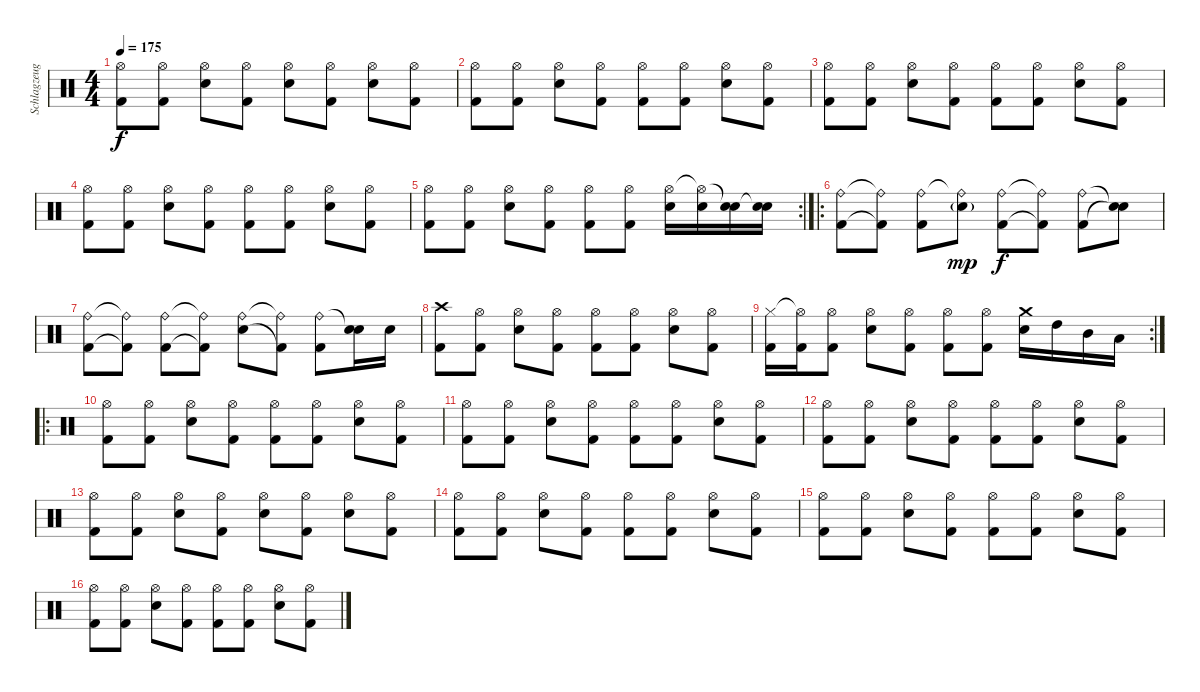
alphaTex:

\track ("Schlagzeug" "Schlagzeug") {instrument percussion}
\staff {score}
\articulation defaults
\ts (4 4)
\tempo 175
\clef neutral
\ks c
("Hi-Hat (open)" "Kick (hit) 2").8{dy f} ("Hi-Hat (open)" "Kick (hit) 2").8 ("Hi-Hat (open)" "Electric Snare (hit)").8 ("Hi-Hat (open)" "Kick (hit) 2").8 ("Hi-Hat (open)" "Electric Snare (hit)").8 ("Hi-Hat (open)" "Kick (hit) 2").8 ("Hi-Hat (open)" "Electric Snare (hit)").8 ("Hi-Hat (open)" "Kick (hit) 2").8 |
("Hi-Hat (open)" "Kick (hit) 2").8 ("Hi-Hat (open)" "Kick (hit) 2").8 ("Hi-Hat (open)" "Electric Snare (hit)").8 ("Hi-Hat (open)" "Kick (hit) 2").8 ("Hi-Hat (open)" "Kick (hit) 2").8 ("Hi-Hat (open)" "Kick (hit) 2").8 ("Hi-Hat (open)" "Electric Snare (hit)").8 ("Hi-Hat (open)" "Kick (hit) 2").8 |
("Hi-Hat (open)" "Kick (hit) 2").8 ("Hi-Hat (open)" "Kick (hit) 2").8 ("Hi-Hat (open)" "Electric Snare (hit)").8 ("Hi-Hat (open)" "Kick (hit) 2").8 ("Hi-Hat (open)" "Kick (hit) 2").8 ("Hi-Hat (open)" "Kick (hit) 2").8 ("Hi-Hat (open)" "Electric Snare (hit)").8 ("Hi-Hat (open)" "Kick (hit) 2").8 |
("Hi-Hat (open)" "Kick (hit) 2").8 ("Hi-Hat (open)" "Kick (hit) 2").8 ("Hi-Hat (open)" "Electric Snare (hit)").8 ("Hi-Hat (open)" "Kick (hit) 2").8 ("Hi-Hat (open)" "Kick (hit) 2").8 ("Hi-Hat (open)" "Kick (hit) 2").8 ("Hi-Hat (open)" "Electric Snare (hit)").8 ("Hi-Hat (open)" "Kick (hit) 2").8 |
\rc 2
("Hi-Hat (open)" "Kick (hit) 2").8 ("Hi-Hat (open)" "Kick (hit) 2").8 ("Hi-Hat (open)" "Electric Snare (hit)").8 ("Hi-Hat (open)" "Kick (hit) 2").8 ("Hi-Hat (open)" "Kick (hit) 2").8 ("Hi-Hat (open)" "Kick (hit) 2").8 ("Hi-Hat (open)" "Electric Snare (hit)").16 ("Hi-Hat (open)"{t} "Electric Snare (hit)").16 ("Snare (hit)"{t} "Electric Snare (hit)").16 ("Snare (hit)"{t} "Electric Snare (hit)").16 |
\ro
("Ride (bell)" "Kick (hit) 2").8 ("Ride (bell)"{t} "Kick (hit) 2"{t}).8 ("Ride (bell)" "Kick (hit) 2").8 ("Ride (bell)"{t} "Electric Snare (hit)"{g}).8{dy mp} ("Ride (bell)" "Kick (hit) 2").8{dy f} ("Ride (bell)"{t} "Kick (hit) 2"{t}).8 ("Ride (bell)" "Kick (hit) 2").8 ("Snare (hit)"{t} "Snare (hit)"{t}).8 |
("Ride (bell)" "Kick (hit) 2").8 ("Ride (bell)"{t} "Kick (hit) 2"{t}).8 ("Ride (bell)" "Kick (hit) 2").8 ("Ride (bell)"{t} "Kick (hit) 2"{t}).8 ("Ride (bell)" "Electric Snare (hit)").8 ("Ride (bell)"{t} "Kick (hit) 2"{t}).8 ("Ride (bell)" "Kick (hit) 2").8 ("Snare (hit)"{t} "Electric Snare (hit)").16 "Electric Snare (hit)".16 |
("Crash high (hit)" "Kick (hit) 2").8 ("Hi-Hat (open)" "Kick (hit) 2").8 ("Hi-Hat (open)" "Electric Snare (hit)").8 ("Hi-Hat (open)" "Kick (hit) 2").8 ("Hi-Hat (open)" "Kick (hit) 2").8 ("Hi-Hat (open)" "Kick (hit) 2").8 ("Hi-Hat (open)" "Electric Snare (hit)").8 ("Hi-Hat (open)" "Kick (hit) 2").8 |
\rc 2
("Hi-Hat (closed)" "Kick (hit) 2").16 ("Hi-Hat (open)"{t} "Kick (hit) 2").16 ("Hi-Hat (open)" "Kick (hit) 2").8 ("Hi-Hat (open)" "Electric Snare (hit)").8 ("Hi-Hat (open)" "Kick (hit) 2").8 ("Hi-Hat (open)" "Kick (hit) 2").8 ("Hi-Hat (open)" "Kick (hit) 2").8 ("Crash medium (hit)" "Electric Snare (hit)").16 "High Tom (hit)".16 "Mid Tom (hit)".16 "Low Tom (hit)".16 |
\ro
("Hi-Hat (open)" "Kick (hit) 2").8 ("Hi-Hat (open)" "Kick (hit) 2").8 ("Hi-Hat (open)" "Electric Snare (hit)").8 ("Hi-Hat (open)" "Kick (hit) 2").8 ("Hi-Hat (open)" "Kick (hit) 2").8 ("Hi-Hat (open)" "Kick (hit) 2").8 ("Hi-Hat (open)" "Electric Snare (hit)").8 ("Hi-Hat (open)" "Kick (hit) 2").8 |
("Hi-Hat (open)" "Kick (hit) 2").8 ("Hi-Hat (open)" "Kick (hit) 2").8 ("Hi-Hat (open)" "Electric Snare (hit)").8 ("Hi-Hat (open)" "Kick (hit) 2").8 ("Hi-Hat (open)" "Kick (hit) 2").8 ("Hi-Hat (open)" "Kick (hit) 2").8 ("Hi-Hat (open)" "Electric Snare (hit)").8 ("Hi-Hat (open)" "Kick (hit) 2").8 |
("Hi-Hat (open)" "Kick (hit) 2").8 ("Hi-Hat (open)" "Kick (hit) 2").8 ("Hi-Hat (open)" "Electric Snare (hit)").8 ("Hi-Hat (open)" "Kick (hit) 2").8 ("Hi-Hat (open)" "Kick (hit) 2").8 ("Hi-Hat (open)" "Kick (hit) 2").8 ("Hi-Hat (open)" "Electric Snare (hit)").8 ("Hi-Hat (open)" "Kick (hit) 2").8 |
("Hi-Hat (open)" "Kick (hit) 2").8 ("Hi-Hat (open)" "Kick (hit) 2").8 ("Hi-Hat (open)" "Electric Snare (hit)").8 ("Hi-Hat (open)" "Kick (hit) 2").8 ("Hi-Hat (open)" "Electric Snare (hit)").8 ("Hi-Hat (open)" "Kick (hit) 2").8 ("Hi-Hat (open)" "Electric Snare (hit)").8 ("Hi-Hat (open)" "Kick (hit) 2").8 |
("Hi-Hat (open)" "Kick (hit) 2").8 ("Hi-Hat (open)" "Kick (hit) 2").8 ("Hi-Hat (open)" "Electric Snare (hit)").8 ("Hi-Hat (open)" "Kick (hit) 2").8 ("Hi-Hat (open)" "Kick (hit) 2").8 ("Hi-Hat (open)" "Kick (hit) 2").8 ("Hi-Hat (open)" "Electric Snare (hit)").8 ("Hi-Hat (open)" "Kick (hit) 2").8 |
("Hi-Hat (open)" "Kick (hit) 2").8 ("Hi-Hat (open)" "Kick (hit) 2").8 ("Hi-Hat (open)" "Electric Snare (hit)").8 ("Hi-Hat (open)" "Kick (hit) 2").8 ("Hi-Hat (open)" "Kick (hit) 2").8 ("Hi-Hat (open)" "Kick (hit) 2").8 ("Hi-Hat (open)" "Electric Snare (hit)").8 ("Hi-Hat (open)" "Kick (hit) 2").8 |
("Hi-Hat (open)" "Kick (hit) 2").8 ("Hi-Hat (open)" "Kick (hit) 2").8 ("Hi-Hat (open)" "Electric Snare (hit)").8 ("Hi-Hat (open)" "Kick (hit) 2").8 ("Hi-Hat (open)" "Kick (hit) 2").8 ("Hi-Hat (open)" "Kick (hit) 2").8 ("Hi-Hat (open)" "Electric Snare (hit)").8 ("Hi-Hat (open)" "Kick (hit) 2").8
